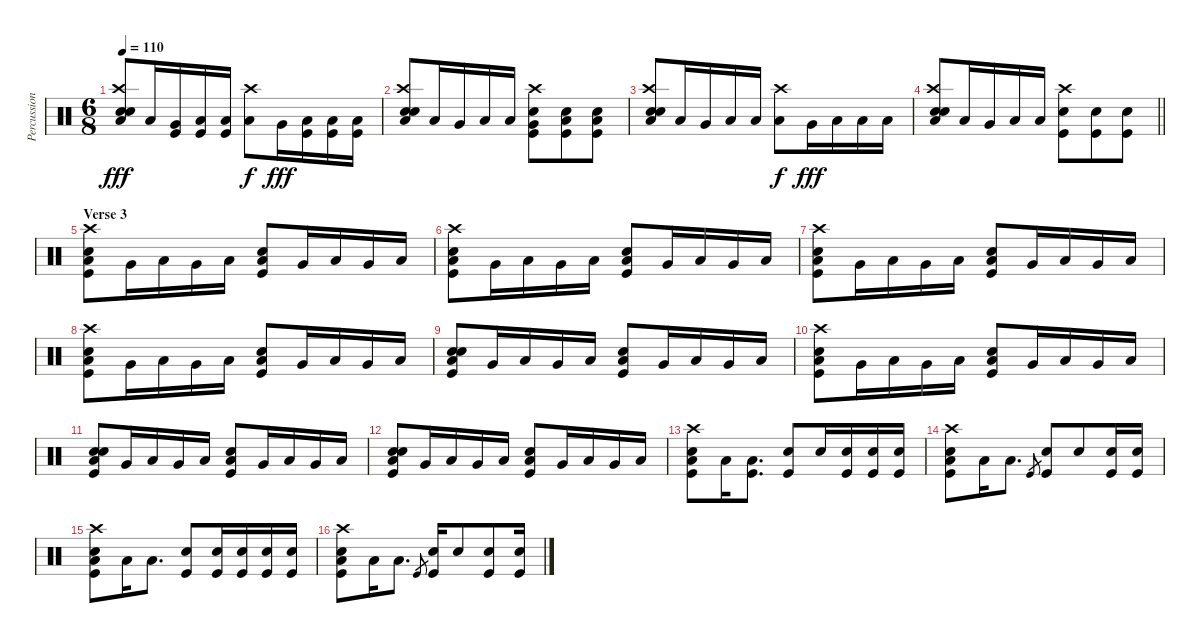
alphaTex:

\track ("Percussion" "Percussion") {instrument percussion}
\staff {score}
\articulation defaults
\ts (6 8)
\tempo 110
\clef neutral
\ks c
("Snare (hit) 2" "Crash high (hit)" "Low Floor Tom (hit)" "Electric Snare (hit)").8{dy fff} "Low Floor Tom (hit)".16 ("Very Low Tom (hit)" "Kick (hit)").16 ("Low Tom (hit)" "Kick (hit)").16 ("Low Floor Tom (hit)" "Kick (hit)").16 ("Crash high (hit)" "Low Floor Tom (hit)").8{dy f} "Very Low Tom (hit)".16{dy fff} ("Low Tom (hit)" "Kick (hit)").16 ("Low Floor Tom (hit)" "Kick (hit)").16 ("Low Floor Tom (hit)" "Kick (hit)").16 |
("Snare (hit) 2" "Crash high (hit)" "Low Floor Tom (hit)" "Electric Snare (hit)").8 "Low Floor Tom (hit)".16 "Very Low Tom (hit)".16 "Low Tom (hit)".16 "Low Floor Tom (hit)".16 ("Crash high (hit)" "Very Low Tom (hit)" "Electric Snare (hit)" "Kick (hit)").8 ("Low Floor Tom (hit)" "Electric Snare (hit)" "Kick (hit)").8 ("Low Tom (hit)" "Electric Snare (hit)" "Kick (hit)").8 |
("Snare (hit) 2" "Crash high (hit)" "Low Floor Tom (hit)" "Electric Snare (hit)").8 "Low Floor Tom (hit)".16 "Very Low Tom (hit)".16 "Low Tom (hit)".16 "Low Floor Tom (hit)".16 ("Crash high (hit)" "Low Floor Tom (hit)").8{dy f} "Very Low Tom (hit)".16{dy fff} "Low Tom (hit)".16 "Low Floor Tom (hit)".16 "Low Floor Tom (hit)".16 |
\barLineRight lightlight
("Snare (hit) 2" "Crash high (hit)" "Low Floor Tom (hit)" "Electric Snare (hit)").8 "Low Floor Tom (hit)".16 "Very Low Tom (hit)".16 "Low Tom (hit)".16 "Low Floor Tom (hit)".16 ("Crash high (hit)" "Electric Snare (hit)" "Kick (hit)").8 ("Electric Snare (hit)" "Kick (hit)").8 ("Electric Snare (hit)" "Kick (hit)").8 |
\section ("" "Verse 3")
("Crash high (hit)" "Electric Snare (hit)" "Low Floor Tom (hit)" "Kick (hit)").8 "Very Low Tom (hit)".16 "Low Floor Tom (hit)".16 "Very Low Tom (hit)".16 "Low Floor Tom (hit)".16 ("Electric Snare (hit)" "Low Floor Tom (hit)" "Kick (hit)").8 "Very Low Tom (hit)".16 "Low Floor Tom (hit)".16 "Very Low Tom (hit)".16 "Low Floor Tom (hit)".16 |
("Crash high (hit)" "Electric Snare (hit)" "Low Floor Tom (hit)" "Kick (hit)").8 "Very Low Tom (hit)".16 "Low Floor Tom (hit)".16 "Very Low Tom (hit)".16 "Low Floor Tom (hit)".16 ("Electric Snare (hit)" "Low Floor Tom (hit)" "Kick (hit)").8 "Very Low Tom (hit)".16 "Low Floor Tom (hit)".16 "Very Low Tom (hit)".16 "Low Floor Tom (hit)".16 |
("Crash high (hit)" "Electric Snare (hit)" "Low Floor Tom (hit)" "Kick (hit)").8 "Very Low Tom (hit)".16 "Low Floor Tom (hit)".16 "Very Low Tom (hit)".16 "Low Floor Tom (hit)".16 ("Electric Snare (hit)" "Low Floor Tom (hit)" "Kick (hit)").8 "Very Low Tom (hit)".16 "Low Floor Tom (hit)".16 "Very Low Tom (hit)".16 "Low Floor Tom (hit)".16 |
("Crash high (hit)" "Electric Snare (hit)" "Low Floor Tom (hit)" "Kick (hit)").8 "Very Low Tom (hit)".16 "Low Floor Tom (hit)".16 "Very Low Tom (hit)".16 "Low Floor Tom (hit)".16 ("Electric Snare (hit)" "Low Floor Tom (hit)" "Kick (hit)").8 "Very Low Tom (hit)".16 "Low Floor Tom (hit)".16 "Very Low Tom (hit)".16 "Low Floor Tom (hit)".16 |
("Snare (hit) 2" "Electric Snare (hit)" "Low Floor Tom (hit)" "Kick (hit)").8 "Very Low Tom (hit)".16 "Low Floor Tom (hit)".16 "Very Low Tom (hit)".16 "Low Floor Tom (hit)".16 ("Electric Snare (hit)" "Low Floor Tom (hit)" "Kick (hit)").8 "Very Low Tom (hit)".16 "Low Floor Tom (hit)".16 "Very Low Tom (hit)".16 "Low Floor Tom (hit)".16 |
("Crash high (hit)" "Electric Snare (hit)" "Low Floor Tom (hit)" "Kick (hit)").8 "Very Low Tom (hit)".16 "Low Floor Tom (hit)".16 "Very Low Tom (hit)".16 "Low Floor Tom (hit)".16 ("Electric Snare (hit)" "Low Floor Tom (hit)" "Kick (hit)").8 "Very Low Tom (hit)".16 "Low Floor Tom (hit)".16 "Very Low Tom (hit)".16 "Low Floor Tom (hit)".16 |
("Snare (hit) 2" "Electric Snare (hit)" "Low Floor Tom (hit)" "Kick (hit)").8 "Very Low Tom (hit)".16 "Low Floor Tom (hit)".16 "Very Low Tom (hit)".16 "Low Floor Tom (hit)".16 ("Electric Snare (hit)" "Low Floor Tom (hit)" "Kick (hit)").8 "Very Low Tom (hit)".16 "Low Floor Tom (hit)".16 "Very Low Tom (hit)".16 "Low Floor Tom (hit)".16 |
("Snare (hit) 2" "Electric Snare (hit)" "Low Floor Tom (hit)" "Kick (hit)").8 "Very Low Tom (hit)".16 "Low Floor Tom (hit)".16 "Very Low Tom (hit)".16 "Low Floor Tom (hit)".16 ("Electric Snare (hit)" "Low Floor Tom (hit)" "Kick (hit)").8 "Very Low Tom (hit)".16 "Low Floor Tom (hit)".16 "Very Low Tom (hit)".16 "Low Floor Tom (hit)".16 |
("Crash high (hit)" "Electric Snare (hit)" "Low Floor Tom (hit)" "Kick (hit)").8 "Low Floor Tom (hit)".16 ("Low Floor Tom (hit)" "Kick (hit)").8{d} ("Electric Snare (hit)" "Kick (hit)").8 "Electric Snare (hit)".16 ("Electric Snare (hit)" "Kick (hit)").16 ("Electric Snare (hit)" "Kick (hit)").16 ("Electric Snare (hit)" "Kick (hit)").16 |
("Crash high (hit)" "Electric Snare (hit)" "Low Floor Tom (hit)" "Kick (hit)").8 "Low Floor Tom (hit)".16 "Low Floor Tom (hit)".8{d} "Kick (hit)".8{gr} ("Electric Snare (hit)" "Kick (hit)").8 "Electric Snare (hit)".8 ("Electric Snare (hit)" "Kick (hit)").16 ("Electric Snare (hit)" "Kick (hit)").16 |
("Crash high (hit)" "Electric Snare (hit)" "Low Floor Tom (hit)" "Kick (hit)").8 "Low Floor Tom (hit)".16 "Low Floor Tom (hit)".8{d} ("Electric Snare (hit)" "Kick (hit)").8 ("Electric Snare (hit)" "Kick (hit)").16 ("Electric Snare (hit)" "Kick (hit)").16 ("Electric Snare (hit)" "Kick (hit)").16 ("Electric Snare (hit)" "Kick (hit)").16 |
("Crash high (hit)" "Electric Snare (hit)" "Low Floor Tom (hit)" "Kick (hit)").8 "Low Floor Tom (hit)".16 "Low Floor Tom (hit)".8{d} "Kick (hit)".8{gr} ("Electric Snare (hit)" "Kick (hit)").16 "Electric Snare (hit)".8 ("Electric Snare (hit)" "Kick (hit)").8 ("Electric Snare (hit)" "Kick (hit)").16
